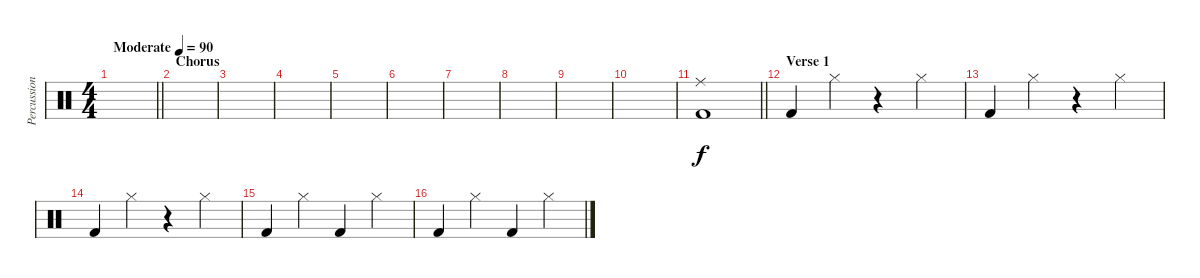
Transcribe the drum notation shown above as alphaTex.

\track ("Percussion" "Percussion") {instrument percussion}
\staff {score}
\articulation defaults
\ts (4 4)
\tempo (90 "Moderate")
\clef neutral
\barLineRight lightlight
\ks c
|
\section ("" "Chorus")
|
|
|
|
|
|
|
|
|
\barLineRight lightlight
("Ride (middle)" "Kick (hit) 2").1 |
\section ("" "Verse 1")
"Kick (hit) 2".4 "Hi-Hat (closed)".4 r.4 "Hi-Hat (closed)".4 |
"Kick (hit) 2".4 "Hi-Hat (closed)".4 r.4 "Hi-Hat (closed)".4 |
"Kick (hit) 2".4 "Hi-Hat (closed)".4 r.4 "Hi-Hat (closed)".4 |
"Kick (hit) 2".4 "Hi-Hat (closed)".4 "Kick (hit) 2".4 "Hi-Hat (closed)".4 |
"Kick (hit) 2".4 "Hi-Hat (closed)".4 "Kick (hit) 2".4 "Hi-Hat (closed)".4
